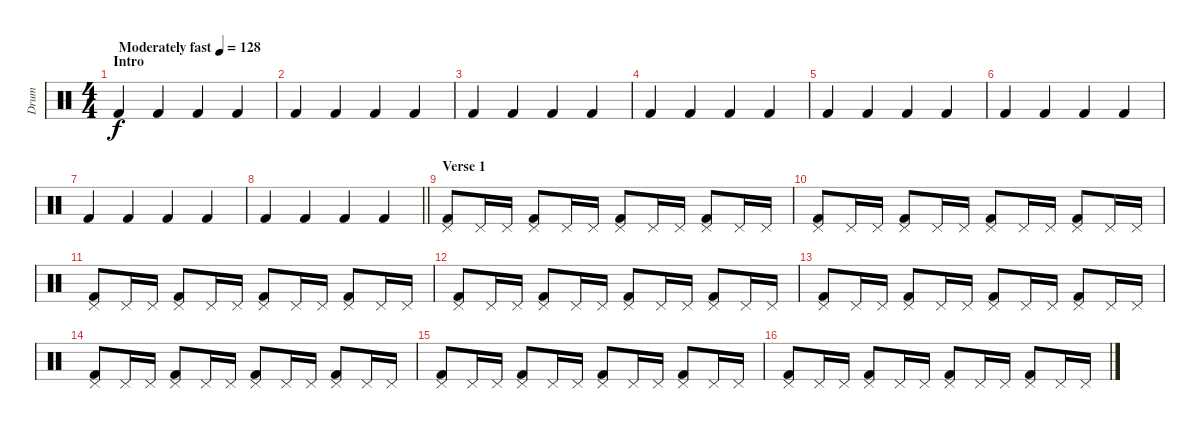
\track ("Drum" "Drum") {instrument percussion}
\staff {score}
\articulation defaults
\ts (4 4)
\section ("" "Intro")
\tempo (128 "Moderately fast")
\clef neutral
\ks c "Kick (hit) 2".4{dy f} "Kick (hit) 2".4 "Kick (hit) 2".4 "Kick (hit) 2".4
|
"Kick (hit) 2".4 "Kick (hit) 2".4 "Kick (hit) 2".4 "Kick (hit) 2".4 |
"Kick (hit) 2".4 "Kick (hit) 2".4 "Kick (hit) 2".4 "Kick (hit) 2".4 |
"Kick (hit) 2".4 "Kick (hit) 2".4 "Kick (hit) 2".4 "Kick (hit) 2".4 |
"Kick (hit) 2".4 "Kick (hit) 2".4 "Kick (hit) 2".4 "Kick (hit) 2".4 |
"Kick (hit) 2".4 "Kick (hit) 2".4 "Kick (hit) 2".4 "Kick (hit) 2".4 |
"Kick (hit) 2".4 "Kick (hit) 2".4 "Kick (hit) 2".4 "Kick (hit) 2".4 |
\barLineRight lightlight "Kick (hit) 2".4 "Kick (hit) 2".4 "Kick (hit) 2".4 "Kick (hit) 2".4
|
\section ("" "Verse 1")
("Pedal Hi-Hat (hit)" "Kick (hit) 2").8 "Pedal Hi-Hat (hit)".16 "Pedal Hi-Hat (hit)".16 ("Pedal Hi-Hat (hit)" "Kick (hit) 2").8 "Pedal Hi-Hat (hit)".16 "Pedal Hi-Hat (hit)".16 ("Pedal Hi-Hat (hit)" "Kick (hit) 2").8 "Pedal Hi-Hat (hit)".16 "Pedal Hi-Hat (hit)".16 ("Pedal Hi-Hat (hit)" "Kick (hit) 2").8 "Pedal Hi-Hat (hit)".16 "Pedal Hi-Hat (hit)".16 |
("Pedal Hi-Hat (hit)" "Kick (hit) 2").8 "Pedal Hi-Hat (hit)".16 "Pedal Hi-Hat (hit)".16 ("Pedal Hi-Hat (hit)" "Kick (hit) 2").8 "Pedal Hi-Hat (hit)".16 "Pedal Hi-Hat (hit)".16 ("Pedal Hi-Hat (hit)" "Kick (hit) 2").8 "Pedal Hi-Hat (hit)".16 "Pedal Hi-Hat (hit)".16 ("Pedal Hi-Hat (hit)" "Kick (hit) 2").8 "Pedal Hi-Hat (hit)".16 "Pedal Hi-Hat (hit)".16 |
("Pedal Hi-Hat (hit)" "Kick (hit) 2").8 "Pedal Hi-Hat (hit)".16 "Pedal Hi-Hat (hit)".16 ("Pedal Hi-Hat (hit)" "Kick (hit) 2").8 "Pedal Hi-Hat (hit)".16 "Pedal Hi-Hat (hit)".16 ("Pedal Hi-Hat (hit)" "Kick (hit) 2").8 "Pedal Hi-Hat (hit)".16 "Pedal Hi-Hat (hit)".16 ("Pedal Hi-Hat (hit)" "Kick (hit) 2").8 "Pedal Hi-Hat (hit)".16 "Pedal Hi-Hat (hit)".16 |
("Pedal Hi-Hat (hit)" "Kick (hit) 2").8 "Pedal Hi-Hat (hit)".16 "Pedal Hi-Hat (hit)".16 ("Pedal Hi-Hat (hit)" "Kick (hit) 2").8 "Pedal Hi-Hat (hit)".16 "Pedal Hi-Hat (hit)".16 ("Pedal Hi-Hat (hit)" "Kick (hit) 2").8 "Pedal Hi-Hat (hit)".16 "Pedal Hi-Hat (hit)".16 ("Pedal Hi-Hat (hit)" "Kick (hit) 2").8 "Pedal Hi-Hat (hit)".16 "Pedal Hi-Hat (hit)".16 |
("Pedal Hi-Hat (hit)" "Kick (hit) 2").8 "Pedal Hi-Hat (hit)".16 "Pedal Hi-Hat (hit)".16 ("Pedal Hi-Hat (hit)" "Kick (hit) 2").8 "Pedal Hi-Hat (hit)".16 "Pedal Hi-Hat (hit)".16 ("Pedal Hi-Hat (hit)" "Kick (hit) 2").8 "Pedal Hi-Hat (hit)".16 "Pedal Hi-Hat (hit)".16 ("Pedal Hi-Hat (hit)" "Kick (hit) 2").8 "Pedal Hi-Hat (hit)".16 "Pedal Hi-Hat (hit)".16 |
("Pedal Hi-Hat (hit)" "Kick (hit) 2").8 "Pedal Hi-Hat (hit)".16 "Pedal Hi-Hat (hit)".16 ("Pedal Hi-Hat (hit)" "Kick (hit) 2").8 "Pedal Hi-Hat (hit)".16 "Pedal Hi-Hat (hit)".16 ("Pedal Hi-Hat (hit)" "Kick (hit) 2").8 "Pedal Hi-Hat (hit)".16 "Pedal Hi-Hat (hit)".16 ("Pedal Hi-Hat (hit)" "Kick (hit) 2").8 "Pedal Hi-Hat (hit)".16 "Pedal Hi-Hat (hit)".16 |
("Pedal Hi-Hat (hit)" "Kick (hit) 2").8 "Pedal Hi-Hat (hit)".16 "Pedal Hi-Hat (hit)".16 ("Pedal Hi-Hat (hit)" "Kick (hit) 2").8 "Pedal Hi-Hat (hit)".16 "Pedal Hi-Hat (hit)".16 ("Pedal Hi-Hat (hit)" "Kick (hit) 2").8 "Pedal Hi-Hat (hit)".16 "Pedal Hi-Hat (hit)".16 ("Pedal Hi-Hat (hit)" "Kick (hit) 2").8 "Pedal Hi-Hat (hit)".16 "Pedal Hi-Hat (hit)".16 |
("Pedal Hi-Hat (hit)" "Kick (hit) 2").8 "Pedal Hi-Hat (hit)".16 "Pedal Hi-Hat (hit)".16 ("Pedal Hi-Hat (hit)" "Kick (hit) 2").8 "Pedal Hi-Hat (hit)".16 "Pedal Hi-Hat (hit)".16 ("Pedal Hi-Hat (hit)" "Kick (hit) 2").8 "Pedal Hi-Hat (hit)".16 "Pedal Hi-Hat (hit)".16 ("Pedal Hi-Hat (hit)" "Kick (hit) 2").8 "Pedal Hi-Hat (hit)".16 "Pedal Hi-Hat (hit)".16
